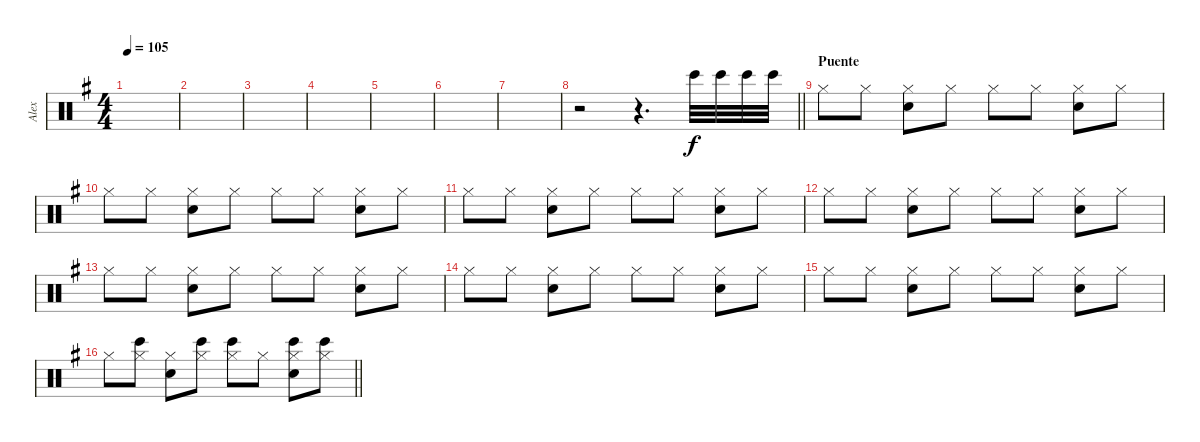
\track ("Alex" "Alex") {instrument percussion}
\staff {score}
\articulation defaults
\ts (4 4)
\tempo 105
\clef neutral
\ks g
|
|
|
|
|
|
|
\barLineRight lightlight
r.2 r.4{d} "Bongo High (hit)".32 "Bongo High (hit)".32 "Bongo High (hit)".32 "Bongo High (hit)".32 |
\section ("" "Puente")
"Hi-Hat (closed)".8 "Hi-Hat (closed)".8 ("Hi-Hat (closed)" "Snare (hit) 2").8 "Hi-Hat (closed)".8 "Hi-Hat (closed)".8 "Hi-Hat (closed)".8 ("Hi-Hat (closed)" "Snare (hit) 2").8 "Hi-Hat (closed)".8 |
"Hi-Hat (closed)".8 "Hi-Hat (closed)".8 ("Hi-Hat (closed)" "Snare (hit) 2").8 "Hi-Hat (closed)".8 "Hi-Hat (closed)".8 "Hi-Hat (closed)".8 ("Hi-Hat (closed)" "Snare (hit) 2").8 "Hi-Hat (closed)".8 |
"Hi-Hat (closed)".8 "Hi-Hat (closed)".8 ("Hi-Hat (closed)" "Snare (hit) 2").8 "Hi-Hat (closed)".8 "Hi-Hat (closed)".8 "Hi-Hat (closed)".8 ("Hi-Hat (closed)" "Snare (hit) 2").8 "Hi-Hat (closed)".8 |
"Hi-Hat (closed)".8 "Hi-Hat (closed)".8 ("Hi-Hat (closed)" "Snare (hit) 2").8 "Hi-Hat (closed)".8 "Hi-Hat (closed)".8 "Hi-Hat (closed)".8 ("Hi-Hat (closed)" "Snare (hit) 2").8 "Hi-Hat (closed)".8 |
"Hi-Hat (closed)".8 "Hi-Hat (closed)".8 ("Hi-Hat (closed)" "Snare (hit) 2").8 "Hi-Hat (closed)".8 "Hi-Hat (closed)".8 "Hi-Hat (closed)".8 ("Hi-Hat (closed)" "Snare (hit) 2").8 "Hi-Hat (closed)".8 |
"Hi-Hat (closed)".8 "Hi-Hat (closed)".8 ("Hi-Hat (closed)" "Snare (hit) 2").8 "Hi-Hat (closed)".8 "Hi-Hat (closed)".8 "Hi-Hat (closed)".8 ("Hi-Hat (closed)" "Snare (hit) 2").8 "Hi-Hat (closed)".8 |
"Hi-Hat (closed)".8 "Hi-Hat (closed)".8 ("Hi-Hat (closed)" "Snare (hit) 2").8 "Hi-Hat (closed)".8 "Hi-Hat (closed)".8 "Hi-Hat (closed)".8 ("Hi-Hat (closed)" "Snare (hit) 2").8 "Hi-Hat (closed)".8 |
\barLineRight lightlight "Hi-Hat (closed)".8
("Hi-Hat (closed)" "Bongo High (hit)").8 ("Hi-Hat (closed)" "Snare (hit) 2").8 ("Hi-Hat (closed)" "Bongo High (hit)").8 ("Hi-Hat (closed)" "Bongo High (hit)").8 "Hi-Hat (closed)".8 ("Hi-Hat (closed)" "Snare (hit) 2" "Bongo High (hit)").8 ("Hi-Hat (closed)" "Bongo High (hit)").8
